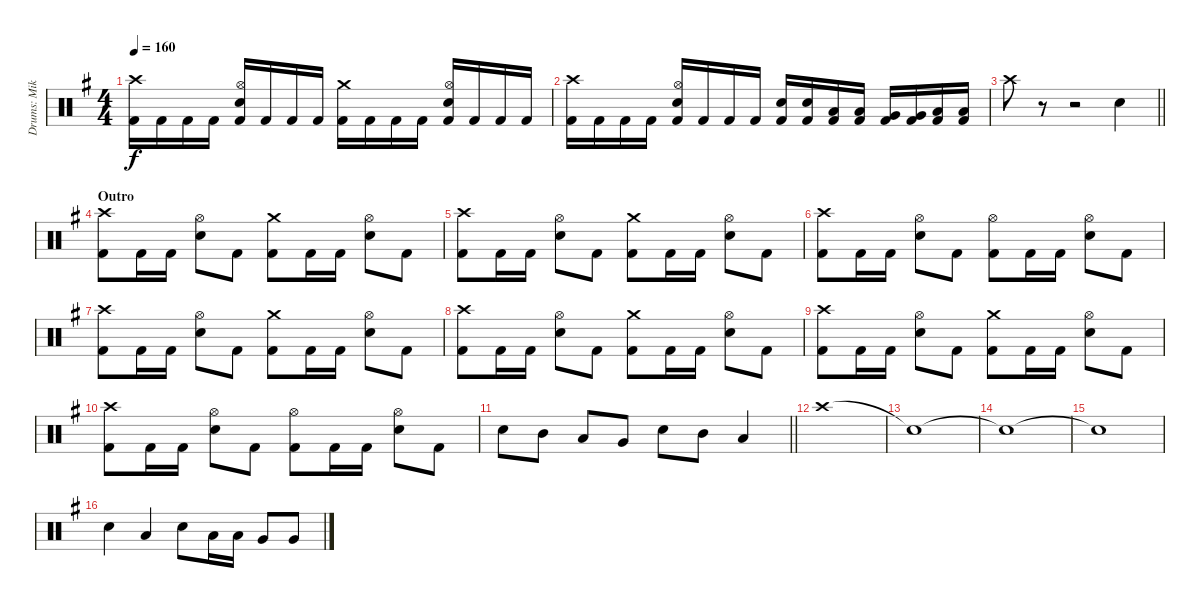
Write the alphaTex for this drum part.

\track ("Drums: Mikko Korsbäck" "Drums: Mik") {instrument percussion}
\staff {score}
\articulation defaults
\ts (4 4)
\tempo 160
\clef neutral
\ks eminor
("Crash high (hit)" "Kick (hit) 2").16{dy f} "Kick (hit) 2".16 "Kick (hit) 2".16 "Kick (hit) 2".16 ("Hi-Hat (open)" "Electric Snare (hit)" "Kick (hit) 2").16 "Kick (hit) 2".16 "Kick (hit) 2".16 "Kick (hit) 2".16 ("Crash medium (hit)" "Kick (hit) 2").16 "Kick (hit) 2".16 "Kick (hit) 2".16 "Kick (hit) 2".16 ("Hi-Hat (open)" "Electric Snare (hit)" "Kick (hit) 2").16 "Kick (hit) 2".16 "Kick (hit) 2".16 "Kick (hit) 2".16 |
("Crash high (hit)" "Kick (hit) 2").16 "Kick (hit) 2".16 "Kick (hit) 2".16 "Kick (hit) 2".16 ("Hi-Hat (open)" "Electric Snare (hit)" "Kick (hit) 2").16 "Kick (hit) 2".16 "Kick (hit) 2".16 "Kick (hit) 2".16 ("Electric Snare (hit)" "Kick (hit) 2").16 ("Electric Snare (hit)" "Kick (hit) 2").16 ("Low Tom (hit)" "Kick (hit) 2").16 ("Low Tom (hit)" "Kick (hit) 2").16 ("Very Low Tom (hit)" "Kick (hit) 2").16 ("Very Low Tom (hit)" "Kick (hit) 2").16 ("Low Tom (hit)" "Kick (hit) 2").16 ("Low Tom (hit)" "Kick (hit) 2").16 |
\barLineRight lightlight "Crash high (hit)".8
r.8 r.2 "Electric Snare (hit)".4 |
\section ("" "Outro")
("Crash high (hit)" "Kick (hit) 2").8 "Kick (hit) 2".16 "Kick (hit) 2".16 ("Hi-Hat (open)" "Electric Snare (hit)").8 "Kick (hit) 2".8 ("Crash medium (hit)" "Kick (hit) 2").8 "Kick (hit) 2".16 "Kick (hit) 2".16 ("Hi-Hat (open)" "Electric Snare (hit)").8 "Kick (hit) 2".8 |
("Crash high (hit)" "Kick (hit) 2").8 "Kick (hit) 2".16 "Kick (hit) 2".16 ("Hi-Hat (open)" "Electric Snare (hit)").8 "Kick (hit) 2".8 ("Crash medium (hit)" "Kick (hit) 2").8 "Kick (hit) 2".16 "Kick (hit) 2".16 ("Hi-Hat (open)" "Electric Snare (hit)").8 "Kick (hit) 2".8 |
("Crash high (hit)" "Kick (hit) 2").8 "Kick (hit) 2".16 "Kick (hit) 2".16 ("Hi-Hat (open)" "Electric Snare (hit)").8 "Kick (hit) 2".8 ("Hi-Hat (open)" "Kick (hit) 2").8 "Kick (hit) 2".16 "Kick (hit) 2".16 ("Hi-Hat (open)" "Electric Snare (hit)").8 "Kick (hit) 2".8 |
("Crash high (hit)" "Kick (hit) 2").8 "Kick (hit) 2".16 "Kick (hit) 2".16 ("Hi-Hat (open)" "Electric Snare (hit)").8 "Kick (hit) 2".8 ("Crash medium (hit)" "Kick (hit) 2").8 "Kick (hit) 2".16 "Kick (hit) 2".16 ("Hi-Hat (open)" "Electric Snare (hit)").8 "Kick (hit) 2".8 |
("Crash high (hit)" "Kick (hit) 2").8 "Kick (hit) 2".16 "Kick (hit) 2".16 ("Hi-Hat (open)" "Electric Snare (hit)").8 "Kick (hit) 2".8 ("Crash medium (hit)" "Kick (hit) 2").8 "Kick (hit) 2".16 "Kick (hit) 2".16 ("Hi-Hat (open)" "Electric Snare (hit)").8 "Kick (hit) 2".8 |
("Crash high (hit)" "Kick (hit) 2").8 "Kick (hit) 2".16 "Kick (hit) 2".16 ("Hi-Hat (open)" "Electric Snare (hit)").8 "Kick (hit) 2".8 ("Crash medium (hit)" "Kick (hit) 2").8 "Kick (hit) 2".16 "Kick (hit) 2".16 ("Hi-Hat (open)" "Electric Snare (hit)").8 "Kick (hit) 2".8 |
("Crash high (hit)" "Kick (hit) 2").8 "Kick (hit) 2".16 "Kick (hit) 2".16 ("Hi-Hat (open)" "Electric Snare (hit)").8 "Kick (hit) 2".8 ("Hi-Hat (open)" "Kick (hit) 2").8 "Kick (hit) 2".16 "Kick (hit) 2".16 ("Hi-Hat (open)" "Electric Snare (hit)").8 "Kick (hit) 2".8 |
\barLineRight lightlight "Electric Snare (hit)".8 "Mid Tom (hit)".8 "Low Tom (hit)".8 "Very Low Tom (hit)".8 "Electric Snare (hit)".8 "Mid Tom (hit)".8 "Low Tom (hit)".4
|
"Crash high (hit)".1 |
"Snare (hit)"{t}.1 |
"Snare (hit)"{t}.1 |
"Snare (hit)"{t}.1 |
"Electric Snare (hit)".4 "Low Tom (hit)".4 "Electric Snare (hit)".8 "Low Tom (hit)".16 "Low Tom (hit)".16 "Very Low Tom (hit)".8 "Very Low Tom (hit)".8
